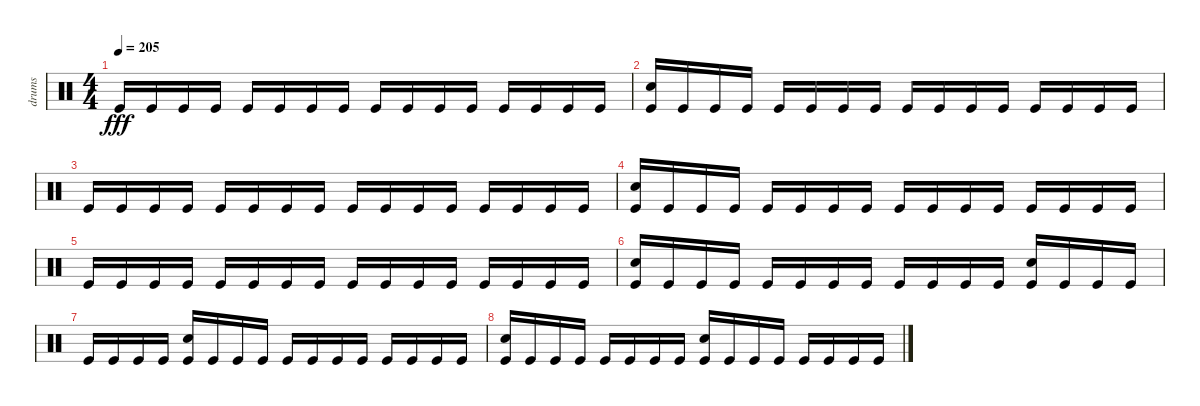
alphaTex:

\track ("drums" "drums") {instrument percussion}
\staff {score}
\articulation defaults
\ts (4 4)
\tempo 205
\clef neutral
\ks c "Kick (hit)".16{dy fff} "Kick (hit)".16 "Kick (hit)".16 "Kick (hit)".16 "Kick (hit)".16 "Kick (hit)".16 "Kick (hit)".16 "Kick (hit)".16 "Kick (hit)".16 "Kick (hit)".16 "Kick (hit)".16 "Kick (hit)".16 "Kick (hit)".16 "Kick (hit)".16 "Kick (hit)".16 "Kick (hit)".16
|
("Electric Snare (hit)" "Kick (hit)").16 "Kick (hit)".16 "Kick (hit)".16 "Kick (hit)".16 "Kick (hit)".16 "Kick (hit)".16 "Kick (hit)".16 "Kick (hit)".16 "Kick (hit)".16 "Kick (hit)".16 "Kick (hit)".16 "Kick (hit)".16 "Kick (hit)".16 "Kick (hit)".16 "Kick (hit)".16 "Kick (hit)".16 |
"Kick (hit)".16 "Kick (hit)".16 "Kick (hit)".16 "Kick (hit)".16 "Kick (hit)".16 "Kick (hit)".16 "Kick (hit)".16 "Kick (hit)".16 "Kick (hit)".16 "Kick (hit)".16 "Kick (hit)".16 "Kick (hit)".16 "Kick (hit)".16 "Kick (hit)".16 "Kick (hit)".16 "Kick (hit)".16 |
("Electric Snare (hit)" "Kick (hit)").16 "Kick (hit)".16 "Kick (hit)".16 "Kick (hit)".16 "Kick (hit)".16 "Kick (hit)".16 "Kick (hit)".16 "Kick (hit)".16 "Kick (hit)".16 "Kick (hit)".16 "Kick (hit)".16 "Kick (hit)".16 "Kick (hit)".16 "Kick (hit)".16 "Kick (hit)".16 "Kick (hit)".16 |
"Kick (hit)".16 "Kick (hit)".16 "Kick (hit)".16 "Kick (hit)".16 "Kick (hit)".16 "Kick (hit)".16 "Kick (hit)".16 "Kick (hit)".16 "Kick (hit)".16 "Kick (hit)".16 "Kick (hit)".16 "Kick (hit)".16 "Kick (hit)".16 "Kick (hit)".16 "Kick (hit)".16 "Kick (hit)".16 |
("Electric Snare (hit)" "Kick (hit)").16 "Kick (hit)".16 "Kick (hit)".16 "Kick (hit)".16 "Kick (hit)".16 "Kick (hit)".16 "Kick (hit)".16 "Kick (hit)".16 "Kick (hit)".16 "Kick (hit)".16 "Kick (hit)".16 "Kick (hit)".16 ("Electric Snare (hit)" "Kick (hit)").16 "Kick (hit)".16 "Kick (hit)".16 "Kick (hit)".16 |
"Kick (hit)".16 "Kick (hit)".16 "Kick (hit)".16 "Kick (hit)".16 ("Electric Snare (hit)" "Kick (hit)").16 "Kick (hit)".16 "Kick (hit)".16 "Kick (hit)".16 "Kick (hit)".16 "Kick (hit)".16 "Kick (hit)".16 "Kick (hit)".16 "Kick (hit)".16 "Kick (hit)".16 "Kick (hit)".16 "Kick (hit)".16 |
("Electric Snare (hit)" "Kick (hit)").16 "Kick (hit)".16 "Kick (hit)".16 "Kick (hit)".16 "Kick (hit)".16 "Kick (hit)".16 "Kick (hit)".16 "Kick (hit)".16 ("Electric Snare (hit)" "Kick (hit)").16 "Kick (hit)".16 "Kick (hit)".16 "Kick (hit)".16 "Kick (hit)".16 "Kick (hit)".16 "Kick (hit)".16 "Kick (hit)".16
